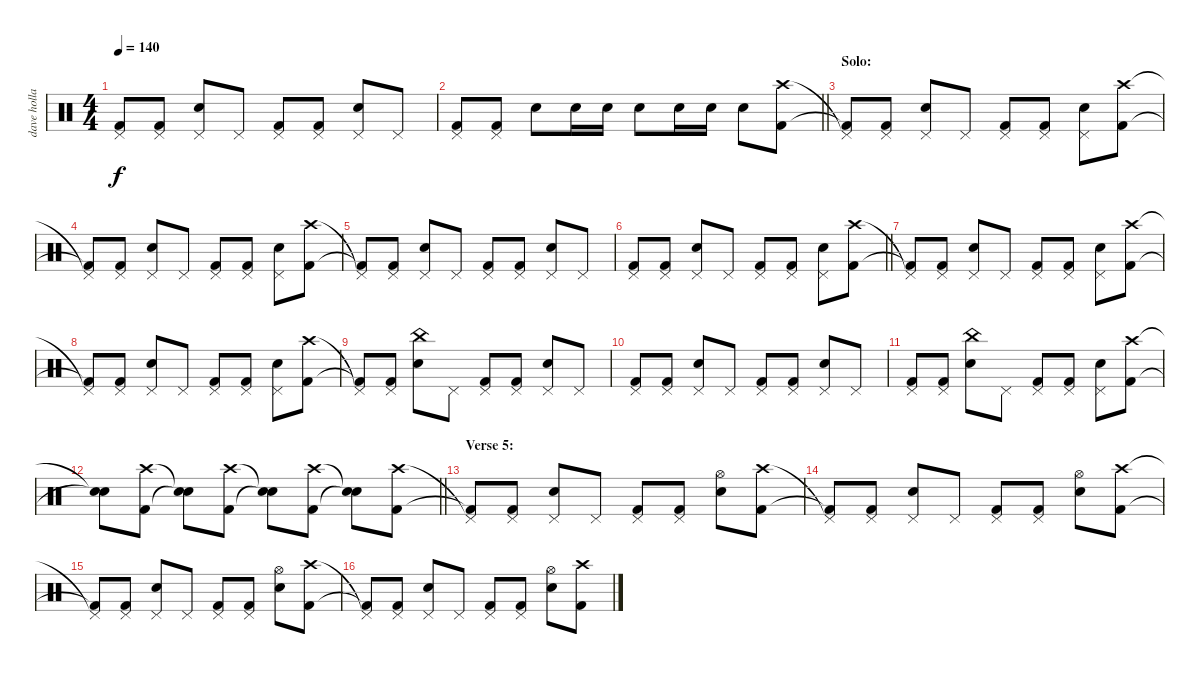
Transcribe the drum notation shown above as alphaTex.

\track ("dave holland" "dave holla") {instrument percussion}
\staff {score}
\articulation defaults
\ts (4 4)
\tempo 140
\clef neutral
\ks c
("Pedal Hi-Hat (hit)"{t} "Kick (hit) 2"{t}).8{dy f} ("Pedal Hi-Hat (hit)" "Kick (hit) 2").8 ("Pedal Hi-Hat (hit)" "Snare (hit) 2").8 "Pedal Hi-Hat (hit)".8 ("Pedal Hi-Hat (hit)" "Kick (hit) 2").8 ("Pedal Hi-Hat (hit)" "Kick (hit) 2").8 ("Pedal Hi-Hat (hit)" "Snare (hit) 2").8 "Pedal Hi-Hat (hit)".8 |
\barLineRight lightlight
("Pedal Hi-Hat (hit)" "Kick (hit) 2").8 ("Pedal Hi-Hat (hit)" "Kick (hit) 2").8 "Snare (hit) 2".8 "Snare (hit) 2".16 "Snare (hit) 2".16 "Snare (hit) 2".8 "Snare (hit) 2".16 "Snare (hit) 2".16 "Snare (hit) 2".8 ("Crash high (hit)" "Kick (hit) 2").8 |
\section ("" "Solo:")
("Pedal Hi-Hat (hit)"{t} "Kick (hit) 2"{t}).8 ("Pedal Hi-Hat (hit)" "Kick (hit) 2").8 ("Pedal Hi-Hat (hit)" "Snare (hit) 2").8 "Pedal Hi-Hat (hit)".8 ("Pedal Hi-Hat (hit)" "Kick (hit) 2").8 ("Pedal Hi-Hat (hit)" "Kick (hit) 2").8 ("Pedal Hi-Hat (hit)" "Snare (hit) 2").8 ("Crash high (hit)" "Kick (hit) 2").8 |
("Pedal Hi-Hat (hit)"{t} "Kick (hit) 2"{t}).8 ("Pedal Hi-Hat (hit)" "Kick (hit) 2").8 ("Pedal Hi-Hat (hit)" "Snare (hit) 2").8 "Pedal Hi-Hat (hit)".8 ("Pedal Hi-Hat (hit)" "Kick (hit) 2").8 ("Pedal Hi-Hat (hit)" "Kick (hit) 2").8 ("Pedal Hi-Hat (hit)" "Snare (hit) 2").8 ("Crash high (hit)" "Kick (hit) 2").8 |
("Pedal Hi-Hat (hit)"{t} "Kick (hit) 2"{t}).8 ("Pedal Hi-Hat (hit)" "Kick (hit) 2").8 ("Pedal Hi-Hat (hit)" "Snare (hit) 2").8 "Pedal Hi-Hat (hit)".8 ("Pedal Hi-Hat (hit)" "Kick (hit) 2").8 ("Pedal Hi-Hat (hit)" "Kick (hit) 2").8 ("Pedal Hi-Hat (hit)" "Snare (hit) 2").8 "Pedal Hi-Hat (hit)".8 |
\barLineRight lightlight
("Pedal Hi-Hat (hit)" "Kick (hit) 2").8 ("Pedal Hi-Hat (hit)" "Kick (hit) 2").8 ("Pedal Hi-Hat (hit)" "Snare (hit) 2").8 "Pedal Hi-Hat (hit)".8 ("Pedal Hi-Hat (hit)" "Kick (hit) 2").8 ("Pedal Hi-Hat (hit)" "Kick (hit) 2").8 ("Pedal Hi-Hat (hit)" "Snare (hit) 2").8 ("Crash high (hit)" "Kick (hit) 2").8 |
("Pedal Hi-Hat (hit)"{t} "Kick (hit) 2"{t}).8 ("Pedal Hi-Hat (hit)" "Kick (hit) 2").8 ("Pedal Hi-Hat (hit)" "Snare (hit) 2").8 "Pedal Hi-Hat (hit)".8 ("Pedal Hi-Hat (hit)" "Kick (hit) 2").8 ("Pedal Hi-Hat (hit)" "Kick (hit) 2").8 ("Pedal Hi-Hat (hit)" "Snare (hit) 2").8 ("Crash high (hit)" "Kick (hit) 2").8 |
("Pedal Hi-Hat (hit)"{t} "Kick (hit) 2"{t}).8 ("Pedal Hi-Hat (hit)" "Kick (hit) 2").8 ("Pedal Hi-Hat (hit)" "Snare (hit) 2").8 "Pedal Hi-Hat (hit)".8 ("Pedal Hi-Hat (hit)" "Kick (hit) 2").8 ("Pedal Hi-Hat (hit)" "Kick (hit) 2").8 ("Pedal Hi-Hat (hit)" "Snare (hit) 2").8 ("Crash high (hit)" "Kick (hit) 2").8 |
("Pedal Hi-Hat (hit)"{t} "Kick (hit) 2"{t}).8 ("Pedal Hi-Hat (hit)" "Kick (hit) 2").8 ("China (hit)" "Snare (hit) 2").8 "Pedal Hi-Hat (hit)".8 ("Pedal Hi-Hat (hit)" "Kick (hit) 2").8 ("Pedal Hi-Hat (hit)" "Kick (hit) 2").8 ("Pedal Hi-Hat (hit)" "Snare (hit) 2").8 "Pedal Hi-Hat (hit)".8 |
("Pedal Hi-Hat (hit)" "Kick (hit) 2").8 ("Pedal Hi-Hat (hit)" "Kick (hit) 2").8 ("Pedal Hi-Hat (hit)" "Snare (hit) 2").8 "Pedal Hi-Hat (hit)".8 ("Pedal Hi-Hat (hit)" "Kick (hit) 2").8 ("Pedal Hi-Hat (hit)" "Kick (hit) 2").8 ("Pedal Hi-Hat (hit)" "Snare (hit) 2").8 "Pedal Hi-Hat (hit)".8 |
("Pedal Hi-Hat (hit)" "Kick (hit) 2").8 ("Pedal Hi-Hat (hit)" "Kick (hit) 2").8 ("China (hit)" "Snare (hit) 2").8 "Pedal Hi-Hat (hit)".8 ("Pedal Hi-Hat (hit)" "Kick (hit) 2").8 ("Pedal Hi-Hat (hit)" "Kick (hit) 2").8 ("Pedal Hi-Hat (hit)" "Snare (hit) 2").8 ("Crash high (hit)" "Kick (hit) 2").8 |
\barLineRight lightlight
("Snare (hit)"{t} "Snare (hit)"{t}).8 ("Crash high (hit)" "Kick (hit) 2").8 ("Snare (hit)"{t} "Snare (hit)"{t}).8 ("Crash high (hit)" "Kick (hit) 2").8 ("Snare (hit)"{t} "Snare (hit)"{t}).8 ("Crash high (hit)" "Kick (hit) 2").8 ("Snare (hit)"{t} "Snare (hit)"{t}).8 ("Crash high (hit)" "Kick (hit) 2").8 |
\section ("" "Verse 5:")
("Pedal Hi-Hat (hit)"{t} "Kick (hit) 2"{t}).8 ("Pedal Hi-Hat (hit)" "Kick (hit) 2").8 ("Pedal Hi-Hat (hit)" "Snare (hit) 2").8 "Pedal Hi-Hat (hit)".8 ("Pedal Hi-Hat (hit)" "Kick (hit) 2").8 ("Pedal Hi-Hat (hit)" "Kick (hit) 2").8 ("Hi-Hat (open)" "Snare (hit) 2").8 ("Crash high (hit)" "Kick (hit) 2").8 |
("Pedal Hi-Hat (hit)"{t} "Kick (hit) 2"{t}).8 ("Pedal Hi-Hat (hit)" "Kick (hit) 2").8 ("Pedal Hi-Hat (hit)" "Snare (hit) 2").8 "Pedal Hi-Hat (hit)".8 ("Pedal Hi-Hat (hit)" "Kick (hit) 2").8 ("Pedal Hi-Hat (hit)" "Kick (hit) 2").8 ("Hi-Hat (open)" "Snare (hit) 2").8 ("Crash high (hit)" "Kick (hit) 2").8 |
("Pedal Hi-Hat (hit)"{t} "Kick (hit) 2"{t}).8 ("Pedal Hi-Hat (hit)" "Kick (hit) 2").8 ("Pedal Hi-Hat (hit)" "Snare (hit) 2").8 "Pedal Hi-Hat (hit)".8 ("Pedal Hi-Hat (hit)" "Kick (hit) 2").8 ("Pedal Hi-Hat (hit)" "Kick (hit) 2").8 ("Hi-Hat (open)" "Snare (hit) 2").8 ("Crash high (hit)" "Kick (hit) 2").8 |
("Pedal Hi-Hat (hit)"{t} "Kick (hit) 2"{t}).8 ("Pedal Hi-Hat (hit)" "Kick (hit) 2").8 ("Pedal Hi-Hat (hit)" "Snare (hit) 2").8 "Pedal Hi-Hat (hit)".8 ("Pedal Hi-Hat (hit)" "Kick (hit) 2").8 ("Pedal Hi-Hat (hit)" "Kick (hit) 2").8 ("Hi-Hat (open)" "Snare (hit) 2").8 ("Crash high (hit)" "Kick (hit) 2").8
